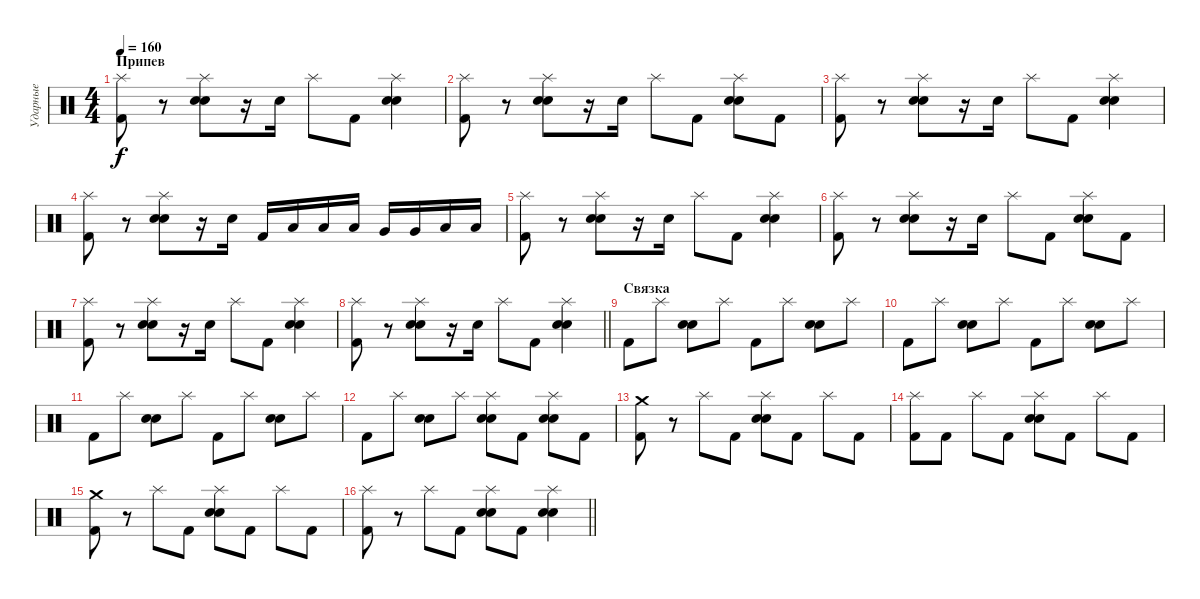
\track ("Ударные" "Ударные") {instrument percussion}
\staff {score}
\articulation defaults
\ts (4 4)
\section ("" "Припев")
\tempo 160
\clef neutral
\ks c
("Splash (hit)" "Kick (hit) 2").8{dy f} r.8 ("Splash (hit)" "Electric Snare (hit)" "Snare (hit) 2").8 r.16 "Electric Snare (hit)".16 "Splash (hit)".8 "Kick (hit) 2".8 ("Splash (hit)" "Electric Snare (hit)" "Snare (hit) 2").4 |
("Splash (hit)" "Kick (hit) 2").8 r.8 ("Splash (hit)" "Electric Snare (hit)" "Snare (hit) 2").8 r.16 "Electric Snare (hit)".16 "Splash (hit)".8 "Kick (hit) 2".8 ("Splash (hit)" "Electric Snare (hit)" "Snare (hit) 2").8 "Kick (hit) 2".8 |
("Splash (hit)" "Kick (hit) 2").8 r.8 ("Splash (hit)" "Electric Snare (hit)" "Snare (hit) 2").8 r.16 "Electric Snare (hit)".16 "Splash (hit)".8 "Kick (hit) 2".8 ("Splash (hit)" "Electric Snare (hit)" "Snare (hit) 2").4 |
("Splash (hit)" "Kick (hit) 2").8 r.8 ("Splash (hit)" "Electric Snare (hit)" "Snare (hit) 2").8 r.16 "Electric Snare (hit)".16 "Kick (hit) 2".16 "Low Tom (hit)".16 "Low Tom (hit)".16 "Low Tom (hit)".16 "Very Low Tom (hit)".16 "Very Low Tom (hit)".16 "Low Floor Tom (hit)".16 "Low Floor Tom (hit)".16 |
("Splash (hit)" "Kick (hit) 2").8 r.8 ("Splash (hit)" "Electric Snare (hit)" "Snare (hit) 2").8 r.16 "Electric Snare (hit)".16 "Splash (hit)".8 "Kick (hit) 2".8 ("Splash (hit)" "Electric Snare (hit)" "Snare (hit) 2").4 |
("Splash (hit)" "Kick (hit) 2").8 r.8 ("Splash (hit)" "Electric Snare (hit)" "Snare (hit) 2").8 r.16 "Electric Snare (hit)".16 "Splash (hit)".8 "Kick (hit) 2".8 ("Splash (hit)" "Electric Snare (hit)" "Snare (hit) 2").8 "Kick (hit) 2".8 |
("Splash (hit)" "Kick (hit) 2").8 r.8 ("Splash (hit)" "Electric Snare (hit)" "Snare (hit) 2").8 r.16 "Electric Snare (hit)".16 "Splash (hit)".8 "Kick (hit) 2".8 ("Splash (hit)" "Electric Snare (hit)" "Snare (hit) 2").4 |
\barLineRight lightlight
("Splash (hit)" "Kick (hit) 2").8 r.8 ("Splash (hit)" "Electric Snare (hit)" "Snare (hit) 2").8 r.16 "Electric Snare (hit)".16 "Splash (hit)".8 "Kick (hit) 2".8 ("Splash (hit)" "Electric Snare (hit)" "Snare (hit) 2").4 |
\section ("" "Связка")
"Kick (hit) 2".8 "Splash (hit)".8 ("Electric Snare (hit)" "Snare (hit) 2").8 "Splash (hit)".8 "Kick (hit) 2".8 "Splash (hit)".8 ("Electric Snare (hit)" "Snare (hit) 2").8 "Splash (hit)".8 |
"Kick (hit) 2".8 "Splash (hit)".8 ("Electric Snare (hit)" "Snare (hit) 2").8 "Splash (hit)".8 "Kick (hit) 2".8 "Splash (hit)".8 ("Electric Snare (hit)" "Snare (hit) 2").8 "Splash (hit)".8 |
"Kick (hit) 2".8 "Splash (hit)".8 ("Electric Snare (hit)" "Snare (hit) 2").8 "Splash (hit)".8 "Kick (hit) 2".8 "Splash (hit)".8 ("Electric Snare (hit)" "Snare (hit) 2").8 "Splash (hit)".8 |
"Kick (hit) 2".8 "Splash (hit)".8 ("Electric Snare (hit)" "Snare (hit) 2").8 "Splash (hit)".8 ("Splash (hit)" "Electric Snare (hit)" "Snare (hit) 2").8 "Kick (hit) 2".8 ("Splash (hit)" "Electric Snare (hit)" "Snare (hit) 2").8 "Kick (hit) 2".8 |
("Crash medium (hit)" "Kick (hit) 2").8 r.8 "Splash (hit)".8 "Kick (hit) 2".8 ("Splash (hit)" "Electric Snare (hit)" "Snare (hit) 2").8 "Kick (hit) 2".8 "Splash (hit)".8 "Kick (hit) 2".8 |
("Splash (hit)" "Kick (hit) 2").8 "Kick (hit) 2".8 "Splash (hit)".8 "Kick (hit) 2".8 ("Splash (hit)" "Electric Snare (hit)" "Snare (hit) 2").8 "Kick (hit) 2".8 "Splash (hit)".8 "Kick (hit) 2".8 |
("Crash medium (hit)" "Kick (hit) 2").8 r.8 "Splash (hit)".8 "Kick (hit) 2".8 ("Splash (hit)" "Electric Snare (hit)" "Snare (hit) 2").8 "Kick (hit) 2".8 "Splash (hit)".8 "Kick (hit) 2".8 |
\barLineRight lightlight
("Splash (hit)" "Kick (hit) 2").8 r.8 "Splash (hit)".8 "Kick (hit) 2".8 ("Splash (hit)" "Electric Snare (hit)" "Snare (hit) 2").8 "Kick (hit) 2".8 ("Splash (hit)" "Electric Snare (hit)" "Snare (hit) 2").4
